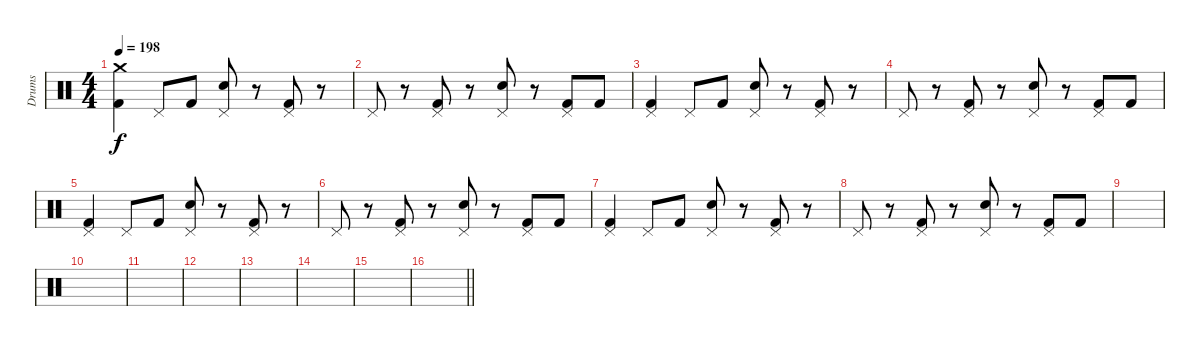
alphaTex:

\track ("Drums" "Drums") {instrument percussion}
\staff {score}
\articulation defaults
\ts (4 4)
\tempo 198
\clef neutral
\ks c
("Crash medium (hit)" "Kick (hit) 2").4{dy f} "Pedal Hi-Hat (hit)".8 "Kick (hit) 2".8 ("Pedal Hi-Hat (hit)" "Electric Snare (hit)").8 r.8 ("Pedal Hi-Hat (hit)" "Kick (hit) 2").8 r.8 |
"Pedal Hi-Hat (hit)".8 r.8 ("Pedal Hi-Hat (hit)" "Kick (hit) 2").8 r.8 ("Pedal Hi-Hat (hit)" "Electric Snare (hit)").8 r.8 ("Pedal Hi-Hat (hit)" "Kick (hit) 2").8 "Kick (hit) 2".8 |
("Pedal Hi-Hat (hit)" "Kick (hit) 2").4 "Pedal Hi-Hat (hit)".8 "Kick (hit) 2".8 ("Pedal Hi-Hat (hit)" "Electric Snare (hit)").8 r.8 ("Pedal Hi-Hat (hit)" "Kick (hit) 2").8 r.8 |
"Pedal Hi-Hat (hit)".8 r.8 ("Pedal Hi-Hat (hit)" "Kick (hit) 2").8 r.8 ("Pedal Hi-Hat (hit)" "Electric Snare (hit)").8 r.8 ("Pedal Hi-Hat (hit)" "Kick (hit) 2").8 "Kick (hit) 2".8 |
("Pedal Hi-Hat (hit)" "Kick (hit) 2").4 "Pedal Hi-Hat (hit)".8 "Kick (hit) 2".8 ("Pedal Hi-Hat (hit)" "Electric Snare (hit)").8 r.8 ("Pedal Hi-Hat (hit)" "Kick (hit) 2").8 r.8 |
"Pedal Hi-Hat (hit)".8 r.8 ("Pedal Hi-Hat (hit)" "Kick (hit) 2").8 r.8 ("Pedal Hi-Hat (hit)" "Electric Snare (hit)").8 r.8 ("Pedal Hi-Hat (hit)" "Kick (hit) 2").8 "Kick (hit) 2".8 |
("Pedal Hi-Hat (hit)" "Kick (hit) 2").4 "Pedal Hi-Hat (hit)".8 "Kick (hit) 2".8 ("Pedal Hi-Hat (hit)" "Electric Snare (hit)").8 r.8 ("Pedal Hi-Hat (hit)" "Kick (hit) 2").8 r.8 |
"Pedal Hi-Hat (hit)".8 r.8 ("Pedal Hi-Hat (hit)" "Kick (hit) 2").8 r.8 ("Pedal Hi-Hat (hit)" "Electric Snare (hit)").8 r.8 ("Pedal Hi-Hat (hit)" "Kick (hit) 2").8 "Kick (hit) 2".8 |
|
|
|
|
|
|
|
\barLineRight lightlight
